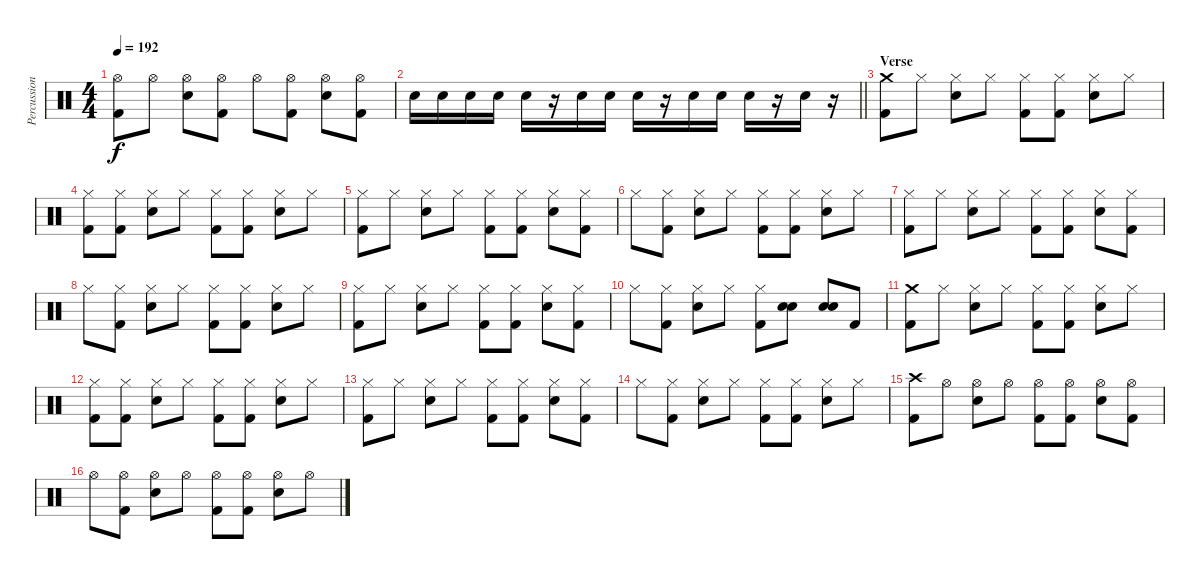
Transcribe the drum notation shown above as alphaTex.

\track ("Percussion" "Percussion") {instrument percussion}
\staff {score}
\articulation defaults
\ts (4 4)
\tempo 192
\clef neutral
\ks c
("Hi-Hat (open)" "Kick (hit) 2").8{dy f} "Hi-Hat (open)".8 ("Hi-Hat (open)" "Electric Snare (hit)").8 ("Hi-Hat (open)" "Kick (hit) 2").8 "Hi-Hat (open)".8 ("Hi-Hat (open)" "Kick (hit) 2").8 ("Hi-Hat (open)" "Electric Snare (hit)").8 ("Hi-Hat (open)" "Kick (hit) 2").8 |
\barLineRight lightlight "Electric Snare (hit)".16 "Electric Snare (hit)".16 "Electric Snare (hit)".16 "Electric Snare (hit)".16 "Electric Snare (hit)".16
r.16 "Electric Snare (hit)".16 "Electric Snare (hit)".16 "Electric Snare (hit)".16 r.16 "Electric Snare (hit)".16 "Electric Snare (hit)".16 "Electric Snare (hit)".16 r.16 "Electric Snare (hit)".16 r.16 |
\section ("" "Verse")
("Crash medium (hit)" "Kick (hit) 2").8 "Hi-Hat (closed)".8 ("Hi-Hat (closed)" "Electric Snare (hit)").8 "Hi-Hat (closed)".8 ("Hi-Hat (closed)" "Kick (hit) 2").8 ("Hi-Hat (closed)" "Kick (hit) 2").8 ("Hi-Hat (closed)" "Electric Snare (hit)").8 "Hi-Hat (closed)".8 |
("Hi-Hat (closed)" "Kick (hit) 2").8 ("Hi-Hat (closed)" "Kick (hit) 2").8 ("Hi-Hat (closed)" "Electric Snare (hit)").8 "Hi-Hat (closed)".8 ("Hi-Hat (closed)" "Kick (hit) 2").8 ("Hi-Hat (closed)" "Kick (hit) 2").8 ("Hi-Hat (closed)" "Electric Snare (hit)").8 "Hi-Hat (closed)".8 |
("Hi-Hat (closed)" "Kick (hit) 2").8 "Hi-Hat (closed)".8 ("Hi-Hat (closed)" "Electric Snare (hit)").8 "Hi-Hat (closed)".8 ("Hi-Hat (closed)" "Kick (hit) 2").8 ("Hi-Hat (closed)" "Kick (hit) 2").8 ("Hi-Hat (closed)" "Electric Snare (hit)").8 ("Hi-Hat (closed)" "Kick (hit) 2").8 |
"Hi-Hat (closed)".8 ("Hi-Hat (closed)" "Kick (hit) 2").8 ("Hi-Hat (closed)" "Electric Snare (hit)").8 "Hi-Hat (closed)".8 ("Hi-Hat (closed)" "Kick (hit) 2").8 ("Hi-Hat (closed)" "Kick (hit) 2").8 ("Hi-Hat (closed)" "Electric Snare (hit)").8 "Hi-Hat (closed)".8 |
("Hi-Hat (closed)" "Kick (hit) 2").8 "Hi-Hat (closed)".8 ("Hi-Hat (closed)" "Electric Snare (hit)").8 "Hi-Hat (closed)".8 ("Hi-Hat (closed)" "Kick (hit) 2").8 ("Hi-Hat (closed)" "Kick (hit) 2").8 ("Hi-Hat (closed)" "Electric Snare (hit)").8 ("Hi-Hat (closed)" "Kick (hit) 2").8 |
"Hi-Hat (closed)".8 ("Hi-Hat (closed)" "Kick (hit) 2").8 ("Hi-Hat (closed)" "Electric Snare (hit)").8 "Hi-Hat (closed)".8 ("Hi-Hat (closed)" "Kick (hit) 2").8 ("Hi-Hat (closed)" "Kick (hit) 2").8 ("Hi-Hat (closed)" "Electric Snare (hit)").8 "Hi-Hat (closed)".8 |
("Hi-Hat (closed)" "Kick (hit) 2").8 "Hi-Hat (closed)".8 ("Hi-Hat (closed)" "Electric Snare (hit)").8 "Hi-Hat (closed)".8 ("Hi-Hat (closed)" "Kick (hit) 2").8 ("Hi-Hat (closed)" "Kick (hit) 2").8 ("Hi-Hat (closed)" "Electric Snare (hit)").8 ("Hi-Hat (closed)" "Kick (hit) 2").8 |
"Hi-Hat (closed)".8 ("Hi-Hat (closed)" "Kick (hit) 2").8 ("Hi-Hat (closed)" "Electric Snare (hit)").8 "Hi-Hat (closed)".8 ("Hi-Hat (closed)" "Kick (hit) 2").8 ("Electric Snare (hit)" "Electric Snare (hit)").8 ("Electric Snare (hit)" "Electric Snare (hit)").8 "Kick (hit) 2".8 |
("Crash medium (hit)" "Kick (hit) 2").8 "Hi-Hat (closed)".8 ("Hi-Hat (closed)" "Electric Snare (hit)").8 "Hi-Hat (closed)".8 ("Hi-Hat (closed)" "Kick (hit) 2").8 ("Hi-Hat (closed)" "Kick (hit) 2").8 ("Hi-Hat (closed)" "Electric Snare (hit)").8 "Hi-Hat (closed)".8 |
("Hi-Hat (closed)" "Kick (hit) 2").8 ("Hi-Hat (closed)" "Kick (hit) 2").8 ("Hi-Hat (closed)" "Electric Snare (hit)").8 "Hi-Hat (closed)".8 ("Hi-Hat (closed)" "Kick (hit) 2").8 ("Hi-Hat (closed)" "Kick (hit) 2").8 ("Hi-Hat (closed)" "Electric Snare (hit)").8 "Hi-Hat (closed)".8 |
("Hi-Hat (closed)" "Kick (hit) 2").8 "Hi-Hat (closed)".8 ("Hi-Hat (closed)" "Electric Snare (hit)").8 "Hi-Hat (closed)".8 ("Hi-Hat (closed)" "Kick (hit) 2").8 ("Hi-Hat (closed)" "Kick (hit) 2").8 ("Hi-Hat (closed)" "Electric Snare (hit)").8 ("Hi-Hat (closed)" "Kick (hit) 2").8 |
"Hi-Hat (closed)".8 ("Hi-Hat (closed)" "Kick (hit) 2").8 ("Hi-Hat (closed)" "Electric Snare (hit)").8 "Hi-Hat (closed)".8 ("Hi-Hat (closed)" "Kick (hit) 2").8 ("Hi-Hat (closed)" "Kick (hit) 2").8 ("Hi-Hat (closed)" "Electric Snare (hit)").8 "Hi-Hat (closed)".8 |
("Crash high (hit)" "Kick (hit) 2").8 "Hi-Hat (open)".8 ("Hi-Hat (open)" "Electric Snare (hit)").8 "Hi-Hat (open)".8 ("Hi-Hat (open)" "Kick (hit) 2").8 ("Hi-Hat (open)" "Kick (hit) 2").8 ("Hi-Hat (open)" "Electric Snare (hit)").8 ("Hi-Hat (open)" "Kick (hit) 2").8 |
"Hi-Hat (open)".8 ("Hi-Hat (open)" "Kick (hit) 2").8 ("Hi-Hat (open)" "Electric Snare (hit)").8 "Hi-Hat (open)".8 ("Hi-Hat (open)" "Kick (hit) 2").8 ("Hi-Hat (open)" "Kick (hit) 2").8 ("Hi-Hat (open)" "Electric Snare (hit)").8 "Hi-Hat (open)".8
